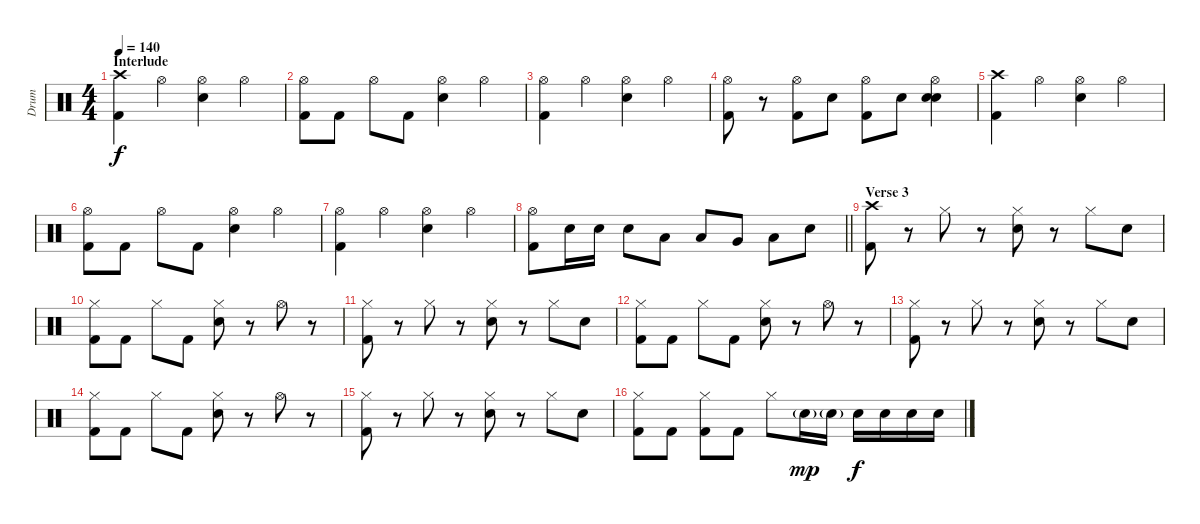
\track ("Drum" "Drum") {instrument percussion}
\staff {score}
\articulation defaults
\ts (4 4)
\section ("" "Interlude")
\tempo 140
\clef neutral
\ks c
("Crash high (hit)" "Kick (hit) 2").4{dy f} "Hi-Hat (open)".4 ("Hi-Hat (open)" "Electric Snare (hit)").4 "Hi-Hat (open)".4 |
("Hi-Hat (open)" "Kick (hit) 2").8 "Kick (hit) 2".8 "Hi-Hat (open)".8 "Kick (hit) 2".8 ("Hi-Hat (open)" "Electric Snare (hit)").4 "Hi-Hat (open)".4 |
("Hi-Hat (open)" "Kick (hit) 2").4 "Hi-Hat (open)".4 ("Hi-Hat (open)" "Electric Snare (hit)").4 "Hi-Hat (open)".4 |
("Hi-Hat (open)" "Kick (hit) 2").8 r.8 ("Hi-Hat (open)" "Kick (hit) 2").8 "Electric Snare (hit)".8 ("Hi-Hat (open)" "Kick (hit) 2").8 "Electric Snare (hit)".8 ("Hi-Hat (open)" "Electric Snare (hit)" "Electric Snare (hit)").4 |
("Crash high (hit)" "Kick (hit) 2").4 "Hi-Hat (open)".4 ("Hi-Hat (open)" "Electric Snare (hit)").4 "Hi-Hat (open)".4 |
("Hi-Hat (open)" "Kick (hit) 2").8 "Kick (hit) 2".8 "Hi-Hat (open)".8 "Kick (hit) 2".8 ("Hi-Hat (open)" "Electric Snare (hit)").4 "Hi-Hat (open)".4 |
("Hi-Hat (open)" "Kick (hit) 2").4 "Hi-Hat (open)".4 ("Hi-Hat (open)" "Electric Snare (hit)").4 "Hi-Hat (open)".4 |
\barLineRight lightlight
("Hi-Hat (open)" "Kick (hit) 2").8 "Electric Snare (hit)".16 "Electric Snare (hit)".16 "Electric Snare (hit)".8 "Low Floor Tom (hit)".8 "Low Tom (hit)".8 "Very Low Tom (hit)".8 "Low Floor Tom (hit)".8 "Electric Snare (hit)".8 |
\section ("" "Verse 3")
("Crash high (hit)" "Kick (hit) 2").8 r.8 "Hi-Hat (closed)".8 r.8 ("Hi-Hat (closed)" "Electric Snare (hit)").8 r.8 "Hi-Hat (closed)".8 "Electric Snare (hit)".8 |
("Hi-Hat (closed)" "Kick (hit) 2").8 "Kick (hit) 2".8 "Hi-Hat (closed)".8 "Kick (hit) 2".8 ("Hi-Hat (closed)" "Electric Snare (hit)").8 r.8 "Hi-Hat (open)".8 r.8 |
("Hi-Hat (closed)" "Kick (hit) 2").8 r.8 "Hi-Hat (closed)".8 r.8 ("Hi-Hat (closed)" "Electric Snare (hit)").8 r.8 "Hi-Hat (closed)".8 "Electric Snare (hit)".8 |
("Hi-Hat (closed)" "Kick (hit) 2").8 "Kick (hit) 2".8 "Hi-Hat (closed)".8 "Kick (hit) 2".8 ("Hi-Hat (closed)" "Electric Snare (hit)").8 r.8 "Hi-Hat (open)".8 r.8 |
("Hi-Hat (closed)" "Kick (hit) 2").8 r.8 "Hi-Hat (closed)".8 r.8 ("Hi-Hat (closed)" "Electric Snare (hit)").8 r.8 "Hi-Hat (closed)".8 "Electric Snare (hit)".8 |
("Hi-Hat (closed)" "Kick (hit) 2").8 "Kick (hit) 2".8 "Hi-Hat (closed)".8 "Kick (hit) 2".8 ("Hi-Hat (closed)" "Electric Snare (hit)").8 r.8 "Hi-Hat (open)".8 r.8 |
("Hi-Hat (closed)" "Kick (hit) 2").8 r.8 "Hi-Hat (closed)".8 r.8 ("Hi-Hat (closed)" "Electric Snare (hit)").8 r.8 "Hi-Hat (closed)".8 "Electric Snare (hit)".8 |
("Hi-Hat (closed)" "Kick (hit) 2").8 "Kick (hit) 2".8 ("Hi-Hat (closed)" "Kick (hit) 2").8 "Kick (hit) 2".8 "Hi-Hat (closed)".8 "Electric Snare (hit)"{g}.16{dy mp} "Electric Snare (hit)"{g}.16 "Electric Snare (hit)".16{dy f} "Electric Snare (hit)".16 "Electric Snare (hit)".16 "Electric Snare (hit)".16
